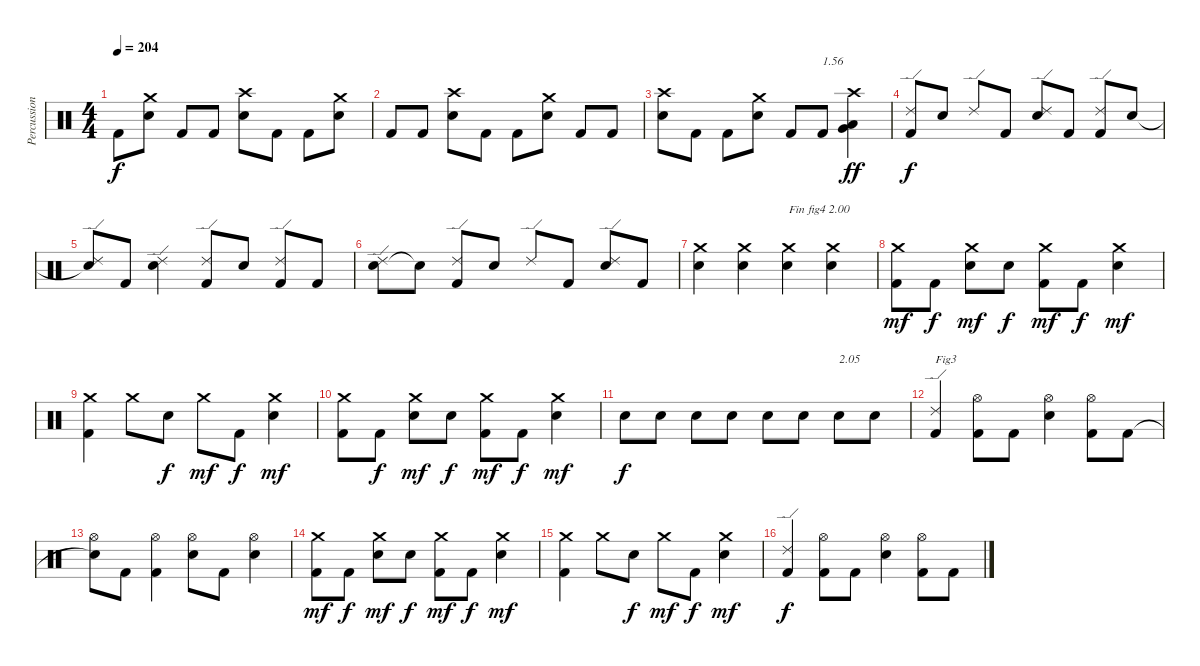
\track ("Percussions" "Percussion") {instrument percussion}
\staff {score}
\articulation defaults
\ts (4 4)
\tempo 204
\clef neutral
\ks c "Kick (hit) 2".8{dy f}
("Electric Snare (hit)" "Crash medium (hit)").8 "Kick (hit) 2".8 "Kick (hit) 2".8 ("Electric Snare (hit)" "Crash high (hit)").8 "Kick (hit) 2".8 "Kick (hit) 2".8 ("Electric Snare (hit)" "Crash medium (hit)").8 |
"Kick (hit) 2".8 "Kick (hit) 2".8 ("Electric Snare (hit)" "Crash high (hit)").8 "Kick (hit) 2".8 "Kick (hit) 2".8 ("Electric Snare (hit)" "Crash medium (hit)").8 "Kick (hit) 2".8 "Kick (hit) 2".8 |
("Electric Snare (hit)" "Crash high (hit)").8 "Kick (hit) 2".8 "Kick (hit) 2".8 ("Electric Snare (hit)" "Crash medium (hit)").8 "Kick (hit) 2".8 "Kick (hit) 2".8{txt "1.56"} ("Very Low Tom (hit)" "Low Floor Tom (hit)" "Crash high (hit)").4{dy ff} |
("Kick (hit) 2" "Ride (edge) 2").8{dy f} "Electric Snare (hit)".8 "Ride (edge) 2".8 "Kick (hit) 2".8 ("Electric Snare (hit)" "Ride (edge) 2").8 "Kick (hit) 2".8 ("Kick (hit) 2" "Ride (edge) 2").8 "Electric Snare (hit)".8 |
("Snare (hit)"{t} "Ride (edge) 2").8 "Kick (hit) 2".8 ("Electric Snare (hit)" "Ride (edge) 2").4 ("Kick (hit) 2" "Ride (edge) 2").8 "Electric Snare (hit)".8 ("Kick (hit) 2" "Ride (edge) 2").8 "Kick (hit) 2".8 |
("Electric Snare (hit)" "Ride (edge) 2").8 "Snare (hit)"{t}.8 ("Kick (hit) 2" "Ride (edge) 2").8 "Electric Snare (hit)".8 "Ride (edge) 2".8 "Kick (hit) 2".8 ("Electric Snare (hit)" "Ride (edge) 2").8 "Kick (hit) 2".8 |
("Electric Snare (hit)" "Crash medium (hit)").4 ("Electric Snare (hit)" "Crash medium (hit)").4 ("Electric Snare (hit)" "Crash medium (hit)").4{txt "Fin fig4 2.00"} ("Electric Snare (hit)" "Crash medium (hit)").4 |
("Kick (hit) 2" "Crash medium (hit)").8{dy mf} "Kick (hit) 2".8{dy f} ("Electric Snare (hit)" "Crash medium (hit)").8{dy mf} "Electric Snare (hit)".8{dy f} ("Kick (hit) 2" "Crash medium (hit)").8{dy mf} "Kick (hit) 2".8{dy f} ("Electric Snare (hit)" "Crash medium (hit)").4{dy mf} |
("Kick (hit) 2" "Crash medium (hit)").4 "Crash medium (hit)".8 "Electric Snare (hit)".8{dy f} "Crash medium (hit)".8{dy mf} "Kick (hit) 2".8{dy f} ("Electric Snare (hit)" "Crash medium (hit)").4{dy mf} |
("Kick (hit) 2" "Crash medium (hit)").8 "Kick (hit) 2".8{dy f} ("Electric Snare (hit)" "Crash medium (hit)").8{dy mf} "Electric Snare (hit)".8{dy f} ("Kick (hit) 2" "Crash medium (hit)").8{dy mf} "Kick (hit) 2".8{dy f} ("Electric Snare (hit)" "Crash medium (hit)").4{dy mf} |
"Electric Snare (hit)".8{dy f} "Electric Snare (hit)".8 "Electric Snare (hit)".8 "Electric Snare (hit)".8 "Electric Snare (hit)".8 "Electric Snare (hit)".8 "Electric Snare (hit)".8{txt "2.05"} "Electric Snare (hit)".8 |
("Kick (hit) 2" "Ride (edge) 2").4{txt "Fig3"} ("Kick (hit) 2" "Hi-Hat (open)").8 "Kick (hit) 2".8 ("Electric Snare (hit)" "Hi-Hat (open)").4 ("Kick (hit) 2" "Hi-Hat (open)").8 "Kick (hit) 2".8 |
("Snare (hit)"{t} "Hi-Hat (open)").8 "Kick (hit) 2".8 ("Kick (hit) 2" "Hi-Hat (open)").4 ("Electric Snare (hit)" "Hi-Hat (open)").8 "Kick (hit) 2".8 ("Electric Snare (hit)" "Hi-Hat (open)").4 |
("Kick (hit) 2" "Crash medium (hit)").8{dy mf} "Kick (hit) 2".8{dy f} ("Electric Snare (hit)" "Crash medium (hit)").8{dy mf} "Electric Snare (hit)".8{dy f} ("Kick (hit) 2" "Crash medium (hit)").8{dy mf} "Kick (hit) 2".8{dy f} ("Electric Snare (hit)" "Crash medium (hit)").4{dy mf} |
("Kick (hit) 2" "Crash medium (hit)").4 "Crash medium (hit)".8 "Electric Snare (hit)".8{dy f} "Crash medium (hit)".8{dy mf} "Kick (hit) 2".8{dy f} ("Electric Snare (hit)" "Crash medium (hit)").4{dy mf} |
("Kick (hit) 2" "Ride (edge) 2").4{dy f} ("Kick (hit) 2" "Hi-Hat (open)").8 "Kick (hit) 2".8 ("Electric Snare (hit)" "Hi-Hat (open)").4 ("Kick (hit) 2" "Hi-Hat (open)").8 "Kick (hit) 2".8
